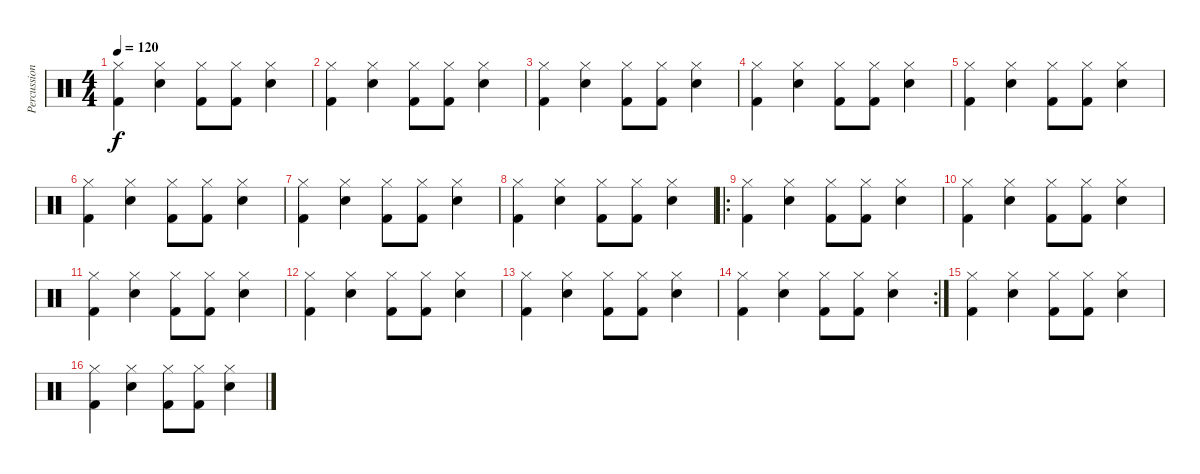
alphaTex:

\track ("Percussion" "Percussion") {instrument percussion}
\staff {score}
\articulation defaults
\ts (4 4)
\tempo 120
\clef neutral
\ks c
("Hi-Hat (closed)" "Kick (hit) 2").4{dy f} ("Hi-Hat (closed)" "Snare (hit) 2").4 ("Hi-Hat (closed)" "Kick (hit) 2").8 ("Hi-Hat (closed)" "Kick (hit) 2").8 ("Hi-Hat (closed)" "Snare (hit) 2").4 |
("Hi-Hat (closed)" "Kick (hit) 2").4 ("Hi-Hat (closed)" "Snare (hit) 2").4 ("Hi-Hat (closed)" "Kick (hit) 2").8 ("Hi-Hat (closed)" "Kick (hit) 2").8 ("Hi-Hat (closed)" "Snare (hit) 2").4 |
("Hi-Hat (closed)" "Kick (hit) 2").4 ("Hi-Hat (closed)" "Snare (hit) 2").4 ("Hi-Hat (closed)" "Kick (hit) 2").8 ("Hi-Hat (closed)" "Kick (hit) 2").8 ("Hi-Hat (closed)" "Snare (hit) 2").4 |
("Hi-Hat (closed)" "Kick (hit) 2").4 ("Hi-Hat (closed)" "Snare (hit) 2").4 ("Hi-Hat (closed)" "Kick (hit) 2").8 ("Hi-Hat (closed)" "Kick (hit) 2").8 ("Hi-Hat (closed)" "Snare (hit) 2").4 |
("Hi-Hat (closed)" "Kick (hit) 2").4 ("Hi-Hat (closed)" "Snare (hit) 2").4 ("Hi-Hat (closed)" "Kick (hit) 2").8 ("Hi-Hat (closed)" "Kick (hit) 2").8 ("Hi-Hat (closed)" "Snare (hit) 2").4 |
("Hi-Hat (closed)" "Kick (hit) 2").4 ("Hi-Hat (closed)" "Snare (hit) 2").4 ("Hi-Hat (closed)" "Kick (hit) 2").8 ("Hi-Hat (closed)" "Kick (hit) 2").8 ("Hi-Hat (closed)" "Snare (hit) 2").4 |
("Hi-Hat (closed)" "Kick (hit) 2").4 ("Hi-Hat (closed)" "Snare (hit) 2").4 ("Hi-Hat (closed)" "Kick (hit) 2").8 ("Hi-Hat (closed)" "Kick (hit) 2").8 ("Hi-Hat (closed)" "Snare (hit) 2").4 |
("Hi-Hat (closed)" "Kick (hit) 2").4 ("Hi-Hat (closed)" "Snare (hit) 2").4 ("Hi-Hat (closed)" "Kick (hit) 2").8 ("Hi-Hat (closed)" "Kick (hit) 2").8 ("Hi-Hat (closed)" "Snare (hit) 2").4 |
\ro
("Hi-Hat (closed)" "Kick (hit) 2").4 ("Hi-Hat (closed)" "Snare (hit) 2").4 ("Hi-Hat (closed)" "Kick (hit) 2").8 ("Hi-Hat (closed)" "Kick (hit) 2").8 ("Hi-Hat (closed)" "Snare (hit) 2").4 |
("Hi-Hat (closed)" "Kick (hit) 2").4 ("Hi-Hat (closed)" "Snare (hit) 2").4 ("Hi-Hat (closed)" "Kick (hit) 2").8 ("Hi-Hat (closed)" "Kick (hit) 2").8 ("Hi-Hat (closed)" "Snare (hit) 2").4 |
("Hi-Hat (closed)" "Kick (hit) 2").4 ("Hi-Hat (closed)" "Snare (hit) 2").4 ("Hi-Hat (closed)" "Kick (hit) 2").8 ("Hi-Hat (closed)" "Kick (hit) 2").8 ("Hi-Hat (closed)" "Snare (hit) 2").4 |
("Hi-Hat (closed)" "Kick (hit) 2").4 ("Hi-Hat (closed)" "Snare (hit) 2").4 ("Hi-Hat (closed)" "Kick (hit) 2").8 ("Hi-Hat (closed)" "Kick (hit) 2").8 ("Hi-Hat (closed)" "Snare (hit) 2").4 |
("Hi-Hat (closed)" "Kick (hit) 2").4 ("Hi-Hat (closed)" "Snare (hit) 2").4 ("Hi-Hat (closed)" "Kick (hit) 2").8 ("Hi-Hat (closed)" "Kick (hit) 2").8 ("Hi-Hat (closed)" "Snare (hit) 2").4 |
\rc 2
("Hi-Hat (closed)" "Kick (hit) 2").4 ("Hi-Hat (closed)" "Snare (hit) 2").4 ("Hi-Hat (closed)" "Kick (hit) 2").8 ("Hi-Hat (closed)" "Kick (hit) 2").8 ("Hi-Hat (closed)" "Snare (hit) 2").4 |
("Hi-Hat (closed)" "Kick (hit) 2").4 ("Hi-Hat (closed)" "Snare (hit) 2").4 ("Hi-Hat (closed)" "Kick (hit) 2").8 ("Hi-Hat (closed)" "Kick (hit) 2").8 ("Hi-Hat (closed)" "Snare (hit) 2").4 |
("Hi-Hat (closed)" "Kick (hit) 2").4 ("Hi-Hat (closed)" "Snare (hit) 2").4 ("Hi-Hat (closed)" "Kick (hit) 2").8 ("Hi-Hat (closed)" "Kick (hit) 2").8 ("Hi-Hat (closed)" "Snare (hit) 2").4
